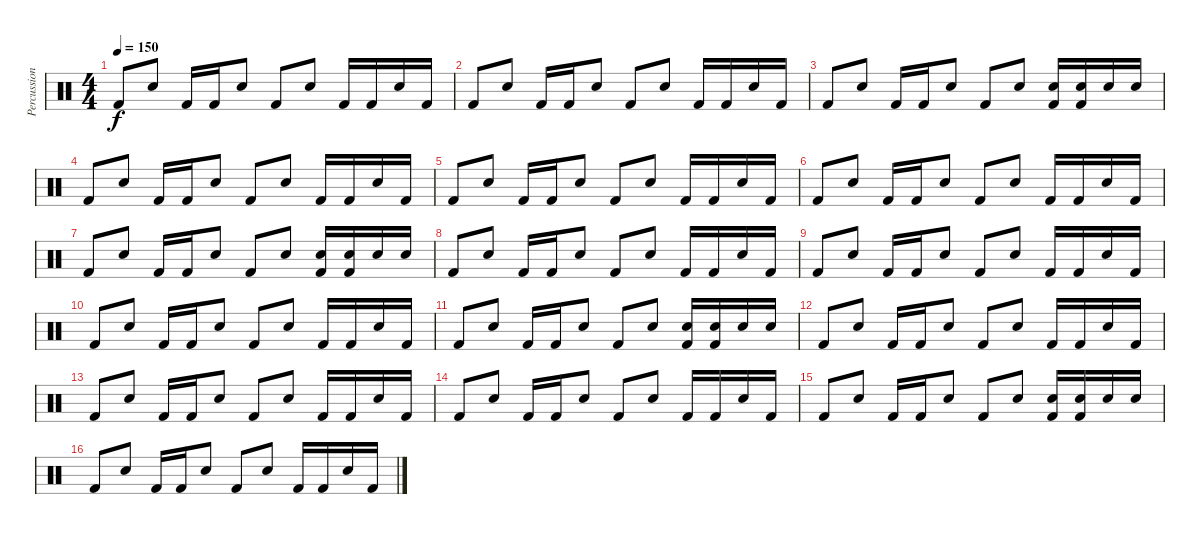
\track ("Percussion" "Percussion") {instrument percussion}
\staff {score}
\articulation defaults
\ts (4 4)
\tempo 150
\clef neutral
\ks c "Kick (hit) 2".8{dy f} "Snare (hit) 2".8 "Kick (hit) 2".16 "Kick (hit) 2".16 "Snare (hit) 2".8 "Kick (hit) 2".8 "Snare (hit) 2".8 "Kick (hit) 2".16 "Kick (hit) 2".16 "Snare (hit) 2".16 "Kick (hit) 2".16
|
"Kick (hit) 2".8 "Snare (hit) 2".8 "Kick (hit) 2".16 "Kick (hit) 2".16 "Snare (hit) 2".8 "Kick (hit) 2".8 "Snare (hit) 2".8 "Kick (hit) 2".16 "Kick (hit) 2".16 "Snare (hit) 2".16 "Kick (hit) 2".16 |
"Kick (hit) 2".8 "Snare (hit) 2".8 "Kick (hit) 2".16 "Kick (hit) 2".16 "Snare (hit) 2".8 "Kick (hit) 2".8 "Snare (hit) 2".8 ("Kick (hit) 2" "Snare (hit) 2").16 ("Kick (hit) 2" "Snare (hit) 2").16 "Snare (hit) 2".16 "Snare (hit) 2".16 |
"Kick (hit) 2".8 "Snare (hit) 2".8 "Kick (hit) 2".16 "Kick (hit) 2".16 "Snare (hit) 2".8 "Kick (hit) 2".8 "Snare (hit) 2".8 "Kick (hit) 2".16 "Kick (hit) 2".16 "Snare (hit) 2".16 "Kick (hit) 2".16 |
"Kick (hit) 2".8 "Snare (hit) 2".8 "Kick (hit) 2".16 "Kick (hit) 2".16 "Snare (hit) 2".8 "Kick (hit) 2".8 "Snare (hit) 2".8 "Kick (hit) 2".16 "Kick (hit) 2".16 "Snare (hit) 2".16 "Kick (hit) 2".16 |
"Kick (hit) 2".8 "Snare (hit) 2".8 "Kick (hit) 2".16 "Kick (hit) 2".16 "Snare (hit) 2".8 "Kick (hit) 2".8 "Snare (hit) 2".8 "Kick (hit) 2".16 "Kick (hit) 2".16 "Snare (hit) 2".16 "Kick (hit) 2".16 |
"Kick (hit) 2".8 "Snare (hit) 2".8 "Kick (hit) 2".16 "Kick (hit) 2".16 "Snare (hit) 2".8 "Kick (hit) 2".8 "Snare (hit) 2".8 ("Kick (hit) 2" "Snare (hit) 2").16 ("Kick (hit) 2" "Snare (hit) 2").16 "Snare (hit) 2".16 "Snare (hit) 2".16 |
"Kick (hit) 2".8 "Snare (hit) 2".8 "Kick (hit) 2".16 "Kick (hit) 2".16 "Snare (hit) 2".8 "Kick (hit) 2".8 "Snare (hit) 2".8 "Kick (hit) 2".16 "Kick (hit) 2".16 "Snare (hit) 2".16 "Kick (hit) 2".16 |
"Kick (hit) 2".8 "Snare (hit) 2".8 "Kick (hit) 2".16 "Kick (hit) 2".16 "Snare (hit) 2".8 "Kick (hit) 2".8 "Snare (hit) 2".8 "Kick (hit) 2".16 "Kick (hit) 2".16 "Snare (hit) 2".16 "Kick (hit) 2".16 |
"Kick (hit) 2".8 "Snare (hit) 2".8 "Kick (hit) 2".16 "Kick (hit) 2".16 "Snare (hit) 2".8 "Kick (hit) 2".8 "Snare (hit) 2".8 "Kick (hit) 2".16 "Kick (hit) 2".16 "Snare (hit) 2".16 "Kick (hit) 2".16 |
"Kick (hit) 2".8 "Snare (hit) 2".8 "Kick (hit) 2".16 "Kick (hit) 2".16 "Snare (hit) 2".8 "Kick (hit) 2".8 "Snare (hit) 2".8 ("Kick (hit) 2" "Snare (hit) 2").16 ("Kick (hit) 2" "Snare (hit) 2").16 "Snare (hit) 2".16 "Snare (hit) 2".16 |
"Kick (hit) 2".8 "Snare (hit) 2".8 "Kick (hit) 2".16 "Kick (hit) 2".16 "Snare (hit) 2".8 "Kick (hit) 2".8 "Snare (hit) 2".8 "Kick (hit) 2".16 "Kick (hit) 2".16 "Snare (hit) 2".16 "Kick (hit) 2".16 |
"Kick (hit) 2".8 "Snare (hit) 2".8 "Kick (hit) 2".16 "Kick (hit) 2".16 "Snare (hit) 2".8 "Kick (hit) 2".8 "Snare (hit) 2".8 "Kick (hit) 2".16 "Kick (hit) 2".16 "Snare (hit) 2".16 "Kick (hit) 2".16 |
"Kick (hit) 2".8 "Snare (hit) 2".8 "Kick (hit) 2".16 "Kick (hit) 2".16 "Snare (hit) 2".8 "Kick (hit) 2".8 "Snare (hit) 2".8 "Kick (hit) 2".16 "Kick (hit) 2".16 "Snare (hit) 2".16 "Kick (hit) 2".16 |
"Kick (hit) 2".8 "Snare (hit) 2".8 "Kick (hit) 2".16 "Kick (hit) 2".16 "Snare (hit) 2".8 "Kick (hit) 2".8 "Snare (hit) 2".8 ("Kick (hit) 2" "Snare (hit) 2").16 ("Kick (hit) 2" "Snare (hit) 2").16 "Snare (hit) 2".16 "Snare (hit) 2".16 |
"Kick (hit) 2".8 "Snare (hit) 2".8 "Kick (hit) 2".16 "Kick (hit) 2".16 "Snare (hit) 2".8 "Kick (hit) 2".8 "Snare (hit) 2".8 "Kick (hit) 2".16 "Kick (hit) 2".16 "Snare (hit) 2".16 "Kick (hit) 2".16
